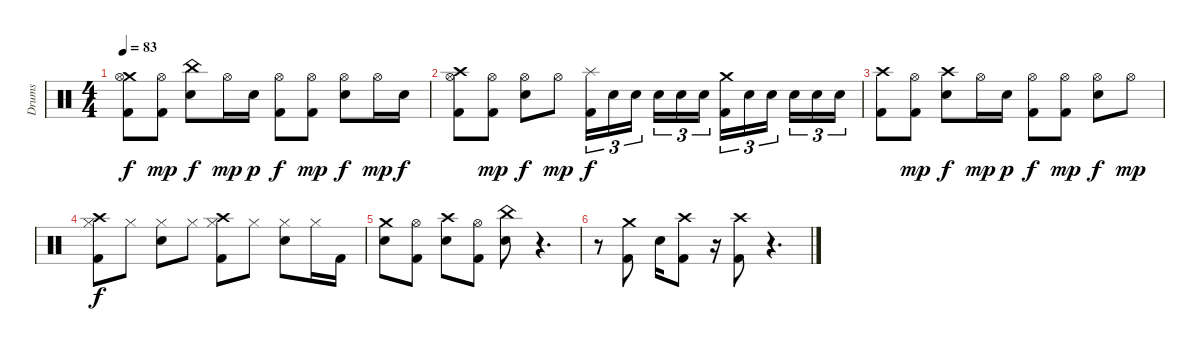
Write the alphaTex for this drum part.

\track ("Drums" "Drums") {instrument percussion}
\staff {score}
\articulation defaults
\ts (4 4)
\tempo 83
\clef neutral
\ks c
("Crash medium (hit)" "Hi-Hat (open)" "Kick (hit) 2").8{dy f} ("Hi-Hat (open)" "Kick (hit) 2").8{dy mp} ("China (hit)" "Electric Snare (hit)").8{dy f} "Hi-Hat (open)".16{dy mp} "Electric Snare (hit)".16{dy p} ("Hi-Hat (open)" "Kick (hit) 2").8{dy f} ("Hi-Hat (open)" "Kick (hit) 2").8{dy mp} ("Hi-Hat (open)" "Electric Snare (hit)").8{dy f} "Hi-Hat (open)".16{dy mp} "Electric Snare (hit)".16{dy f} |
("Crash high (hit)" "Hi-Hat (open)" "Kick (hit) 2").8 ("Hi-Hat (open)" "Kick (hit) 2").8{dy mp} ("Hi-Hat (open)" "Electric Snare (hit)").8{dy f} "Hi-Hat (open)".8{dy mp} ("Splash (hit)" "Kick (hit) 2").16{tu (3 2) dy f} "Electric Snare (hit)".16{tu (3 2)} "Electric Snare (hit)".16{tu (3 2)} "Electric Snare (hit)".16{tu (3 2)} "Electric Snare (hit)".16{tu (3 2)} "Electric Snare (hit)".16{tu (3 2)} ("Crash medium (hit)" "Kick (hit) 2").16{tu (3 2)} "Electric Snare (hit)".16{tu (3 2)} "Electric Snare (hit)".16{tu (3 2)} "Electric Snare (hit)".16{tu (3 2)} "Electric Snare (hit)".16{tu (3 2)} "Electric Snare (hit)".16{tu (3 2)} |
("Crash high (hit)" "Kick (hit) 2").8 ("Hi-Hat (open)" "Kick (hit) 2").8{dy mp} ("Crash high (hit)" "Electric Snare (hit)").8{dy f} "Hi-Hat (open)".16{dy mp} "Electric Snare (hit)".16{dy p} ("Hi-Hat (open)" "Kick (hit) 2").8{dy f} ("Hi-Hat (open)" "Kick (hit) 2").8{dy mp} ("Hi-Hat (open)" "Electric Snare (hit)").8{dy f} "Hi-Hat (open)".8{dy mp} |
("Crash high (hit)" "Hi-Hat (closed)" "Kick (hit) 2").8{dy f} "Hi-Hat (closed)".8 ("Hi-Hat (closed)" "Electric Snare (hit)").8 "Hi-Hat (closed)".8 ("Crash high (hit)" "Hi-Hat (closed)" "Kick (hit) 2").8 "Hi-Hat (closed)".8 ("Hi-Hat (closed)" "Electric Snare (hit)").8 "Hi-Hat (closed)".16 "Kick (hit) 2".16 |
("Crash medium (hit)" "Electric Snare (hit)").8 ("Hi-Hat (open)" "Kick (hit) 2").8 ("Crash high (hit)" "Electric Snare (hit)").8 ("Hi-Hat (open)" "Kick (hit) 2").8 ("China (hit)" "Electric Snare (hit)").8 r.4{d} |
r.8 ("Crash medium (hit)" "Kick (hit) 2").8 "Electric Snare (hit)".16 ("Crash high (hit)" "Kick (hit) 2").8 r.16 ("Crash high (hit)" "Kick (hit) 2").8 r.4{d}
